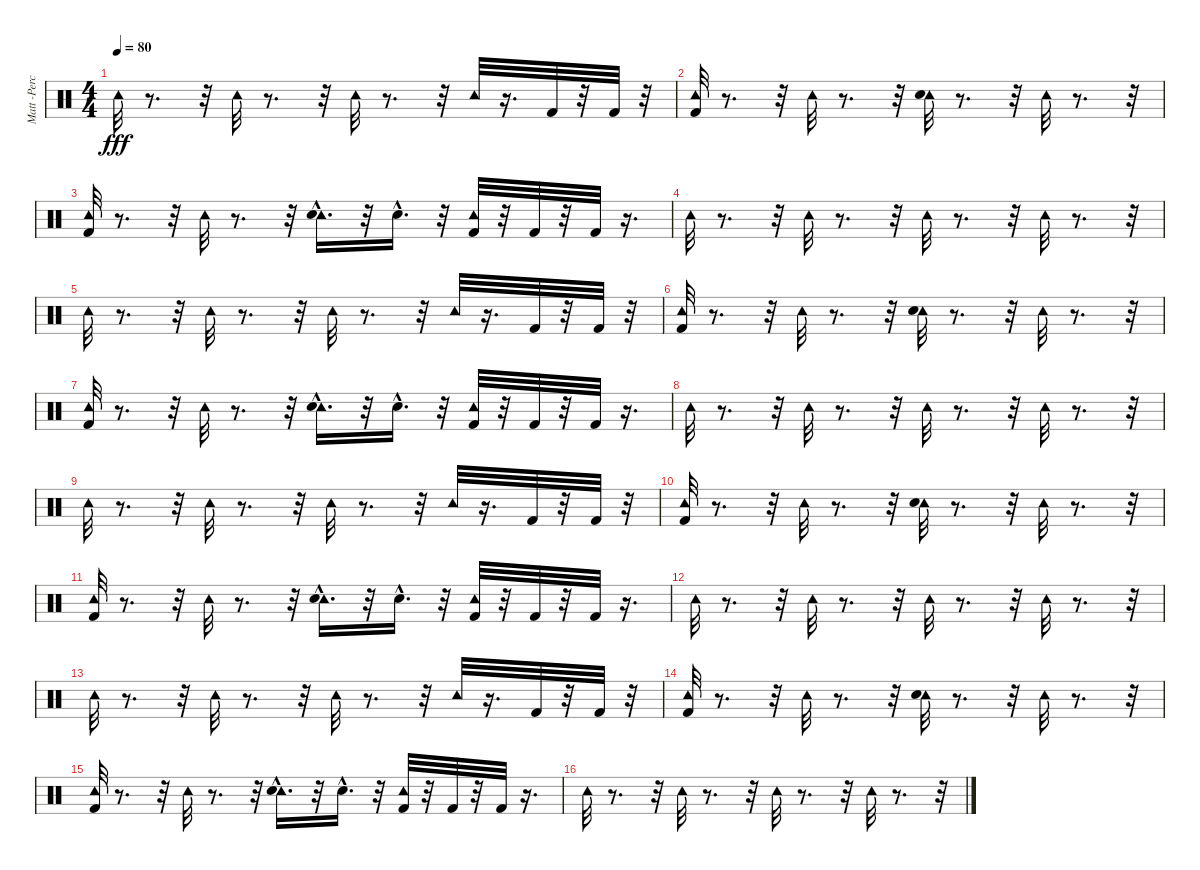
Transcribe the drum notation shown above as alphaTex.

\track ("Matt -Percussion-" "Matt -Perc") {instrument percussion}
\staff {score}
\articulation defaults
\ts (4 4)
\tempo 80
\clef neutral
\ks c "Tambourine (hit)".32{dy fff}
r.8{d} r.32 "Tambourine (hit)".32 r.8{d} r.32 "Tambourine (hit)".32 r.8{d} r.32 "Tambourine (hit)".32 r.16{d} "Kick (hit) 2".32 r.32 "Kick (hit) 2".32 r.32 |
("Tambourine (hit)" "Kick (hit) 2").32 r.8{d} r.32 "Tambourine (hit)".32 r.8{d} r.32 ("Tambourine (hit)" "Snare (hit) 2").32 r.8{d} r.32 "Tambourine (hit)".32 r.8{d} r.32 |
("Tambourine (hit)" "Kick (hit) 2").32 r.8{d} r.32 "Tambourine (hit)".32 r.8{d} r.32 ("Tambourine (hit)" "Snare (hit) 2"{hac}).16{d} r.32 "Snare (hit) 2"{hac}.16{d} r.32 ("Tambourine (hit)" "Kick (hit) 2").32 r.32 "Kick (hit) 2".32 r.32 "Kick (hit) 2".32 r.16{d} |
"Tambourine (hit)".32 r.8{d} r.32 "Tambourine (hit)".32 r.8{d} r.32 "Tambourine (hit)".32 r.8{d} r.32 "Tambourine (hit)".32 r.8{d} r.32 |
"Tambourine (hit)".32 r.8{d} r.32 "Tambourine (hit)".32 r.8{d} r.32 "Tambourine (hit)".32 r.8{d} r.32 "Tambourine (hit)".32 r.16{d} "Kick (hit) 2".32 r.32 "Kick (hit) 2".32 r.32 |
("Tambourine (hit)" "Kick (hit) 2").32 r.8{d} r.32 "Tambourine (hit)".32 r.8{d} r.32 ("Tambourine (hit)" "Snare (hit) 2").32 r.8{d} r.32 "Tambourine (hit)".32 r.8{d} r.32 |
("Tambourine (hit)" "Kick (hit) 2").32 r.8{d} r.32 "Tambourine (hit)".32 r.8{d} r.32 ("Tambourine (hit)" "Snare (hit) 2"{hac}).16{d} r.32 "Snare (hit) 2"{hac}.16{d} r.32 ("Tambourine (hit)" "Kick (hit) 2").32 r.32 "Kick (hit) 2".32 r.32 "Kick (hit) 2".32 r.16{d} |
"Tambourine (hit)".32 r.8{d} r.32 "Tambourine (hit)".32 r.8{d} r.32 "Tambourine (hit)".32 r.8{d} r.32 "Tambourine (hit)".32 r.8{d} r.32 |
"Tambourine (hit)".32 r.8{d} r.32 "Tambourine (hit)".32 r.8{d} r.32 "Tambourine (hit)".32 r.8{d} r.32 "Tambourine (hit)".32 r.16{d} "Kick (hit) 2".32 r.32 "Kick (hit) 2".32 r.32 |
("Tambourine (hit)" "Kick (hit) 2").32 r.8{d} r.32 "Tambourine (hit)".32 r.8{d} r.32 ("Tambourine (hit)" "Snare (hit) 2").32 r.8{d} r.32 "Tambourine (hit)".32 r.8{d} r.32 |
("Tambourine (hit)" "Kick (hit) 2").32 r.8{d} r.32 "Tambourine (hit)".32 r.8{d} r.32 ("Tambourine (hit)" "Snare (hit) 2"{hac}).16{d} r.32 "Snare (hit) 2"{hac}.16{d} r.32 ("Tambourine (hit)" "Kick (hit) 2").32 r.32 "Kick (hit) 2".32 r.32 "Kick (hit) 2".32 r.16{d} |
"Tambourine (hit)".32 r.8{d} r.32 "Tambourine (hit)".32 r.8{d} r.32 "Tambourine (hit)".32 r.8{d} r.32 "Tambourine (hit)".32 r.8{d} r.32 |
"Tambourine (hit)".32 r.8{d} r.32 "Tambourine (hit)".32 r.8{d} r.32 "Tambourine (hit)".32 r.8{d} r.32 "Tambourine (hit)".32 r.16{d} "Kick (hit) 2".32 r.32 "Kick (hit) 2".32 r.32 |
("Tambourine (hit)" "Kick (hit) 2").32 r.8{d} r.32 "Tambourine (hit)".32 r.8{d} r.32 ("Tambourine (hit)" "Snare (hit) 2").32 r.8{d} r.32 "Tambourine (hit)".32 r.8{d} r.32 |
("Tambourine (hit)" "Kick (hit) 2").32 r.8{d} r.32 "Tambourine (hit)".32 r.8{d} r.32 ("Tambourine (hit)" "Snare (hit) 2"{hac}).16{d} r.32 "Snare (hit) 2"{hac}.16{d} r.32 ("Tambourine (hit)" "Kick (hit) 2").32 r.32 "Kick (hit) 2".32 r.32 "Kick (hit) 2".32 r.16{d} |
"Tambourine (hit)".32 r.8{d} r.32 "Tambourine (hit)".32 r.8{d} r.32 "Tambourine (hit)".32 r.8{d} r.32 "Tambourine (hit)".32 r.8{d} r.32
